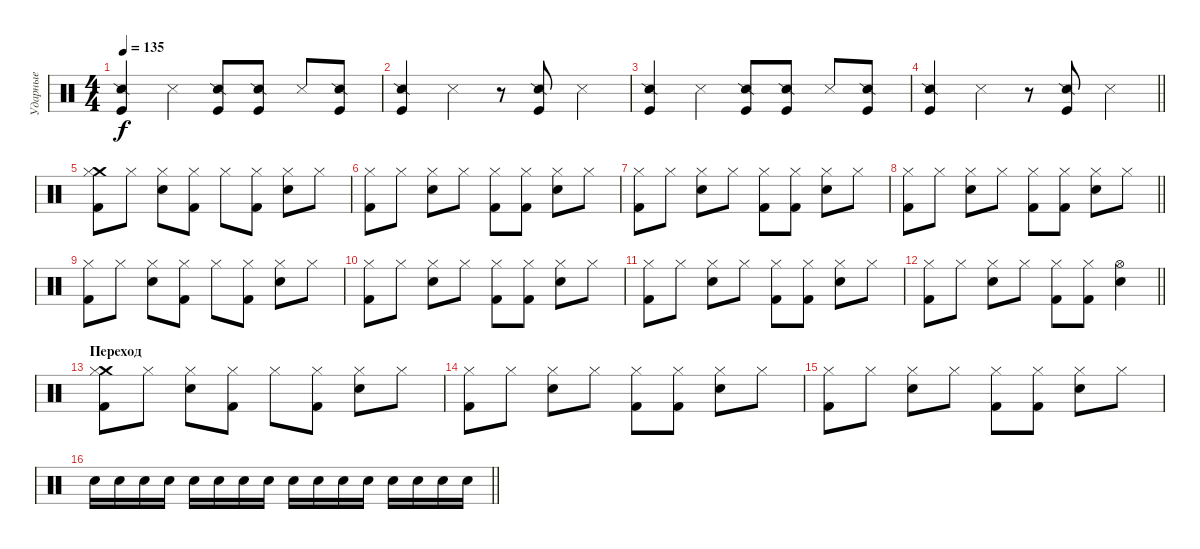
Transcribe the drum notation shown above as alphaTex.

\track ("Ударные" "Ударные") {instrument percussion}
\staff {score}
\articulation defaults
\ts (4 4)
\tempo 135
\clef neutral
\ks c
("Snare (side stick) 2" "Kick (hit)").4{dy f} "Snare (side stick) 3".4 ("Snare (side stick) 2" "Kick (hit)").8 ("Snare (side stick) 2" "Kick (hit)").8 "Snare (side stick) 3".8 ("Snare (side stick) 2" "Kick (hit)").8 |
("Snare (side stick) 2" "Kick (hit)").4 "Snare (side stick) 3".4 r.8 ("Snare (side stick) 2" "Kick (hit)").8 "Snare (side stick) 3".4 |
("Snare (side stick) 2" "Kick (hit)").4 "Snare (side stick) 3".4 ("Snare (side stick) 2" "Kick (hit)").8 ("Snare (side stick) 2" "Kick (hit)").8 "Snare (side stick) 3".8 ("Snare (side stick) 2" "Kick (hit)").8 |
\barLineRight lightlight
("Snare (side stick) 2" "Kick (hit)").4 "Snare (side stick) 3".4 r.8 ("Snare (side stick) 2" "Kick (hit)").8 "Snare (side stick) 3".4 |
("Crash medium (hit)" "Hi-Hat (closed)" "Kick (hit) 2").8 "Hi-Hat (closed)".8 ("Hi-Hat (closed)" "Electric Snare (hit)").8 ("Hi-Hat (closed)" "Kick (hit) 2").8 "Hi-Hat (closed)".8 ("Hi-Hat (closed)" "Kick (hit) 2").8 ("Hi-Hat (closed)" "Electric Snare (hit)").8 "Hi-Hat (closed)".8 |
("Hi-Hat (closed)" "Kick (hit) 2").8 "Hi-Hat (closed)".8 ("Hi-Hat (closed)" "Electric Snare (hit)").8 "Hi-Hat (closed)".8 ("Hi-Hat (closed)" "Kick (hit) 2").8 ("Hi-Hat (closed)" "Kick (hit) 2").8 ("Hi-Hat (closed)" "Electric Snare (hit)").8 "Hi-Hat (closed)".8 |
("Hi-Hat (closed)" "Kick (hit) 2").8 "Hi-Hat (closed)".8 ("Hi-Hat (closed)" "Electric Snare (hit)").8 "Hi-Hat (closed)".8 ("Hi-Hat (closed)" "Kick (hit) 2").8 ("Hi-Hat (closed)" "Kick (hit) 2").8 ("Hi-Hat (closed)" "Electric Snare (hit)").8 "Hi-Hat (closed)".8 |
\barLineRight lightlight
("Hi-Hat (closed)" "Kick (hit) 2").8 "Hi-Hat (closed)".8 ("Hi-Hat (closed)" "Electric Snare (hit)").8 "Hi-Hat (closed)".8 ("Hi-Hat (closed)" "Kick (hit) 2").8 ("Hi-Hat (closed)" "Kick (hit) 2").8 ("Hi-Hat (closed)" "Electric Snare (hit)").8 "Hi-Hat (closed)".8 |
("Hi-Hat (closed)" "Kick (hit) 2").8 "Hi-Hat (closed)".8 ("Hi-Hat (closed)" "Electric Snare (hit)").8 ("Hi-Hat (closed)" "Kick (hit) 2").8 "Hi-Hat (closed)".8 ("Hi-Hat (closed)" "Kick (hit) 2").8 ("Hi-Hat (closed)" "Electric Snare (hit)").8 "Hi-Hat (closed)".8 |
("Hi-Hat (closed)" "Kick (hit) 2").8 "Hi-Hat (closed)".8 ("Hi-Hat (closed)" "Electric Snare (hit)").8 "Hi-Hat (closed)".8 ("Hi-Hat (closed)" "Kick (hit) 2").8 ("Hi-Hat (closed)" "Kick (hit) 2").8 ("Hi-Hat (closed)" "Electric Snare (hit)").8 "Hi-Hat (closed)".8 |
("Hi-Hat (closed)" "Kick (hit) 2").8 "Hi-Hat (closed)".8 ("Hi-Hat (closed)" "Electric Snare (hit)").8 "Hi-Hat (closed)".8 ("Hi-Hat (closed)" "Kick (hit) 2").8 ("Hi-Hat (closed)" "Kick (hit) 2").8 ("Hi-Hat (closed)" "Electric Snare (hit)").8 "Hi-Hat (closed)".8 |
\barLineRight lightlight
("Hi-Hat (closed)" "Kick (hit) 2").8 "Hi-Hat (closed)".8 ("Hi-Hat (closed)" "Electric Snare (hit)").8 "Hi-Hat (closed)".8 ("Hi-Hat (closed)" "Kick (hit) 2").8 ("Hi-Hat (closed)" "Kick (hit) 2").8 ("Hi-Hat (open)" "Electric Snare (hit)").4 |
\section ("" "Переход")
("Crash medium (hit)" "Hi-Hat (closed)" "Kick (hit) 2").8 "Hi-Hat (closed)".8 ("Hi-Hat (closed)" "Electric Snare (hit)").8 ("Hi-Hat (closed)" "Kick (hit) 2").8 "Hi-Hat (closed)".8 ("Hi-Hat (closed)" "Kick (hit) 2").8 ("Hi-Hat (closed)" "Electric Snare (hit)").8 "Hi-Hat (closed)".8 |
("Hi-Hat (closed)" "Kick (hit) 2").8 "Hi-Hat (closed)".8 ("Hi-Hat (closed)" "Electric Snare (hit)").8 "Hi-Hat (closed)".8 ("Hi-Hat (closed)" "Kick (hit) 2").8 ("Hi-Hat (closed)" "Kick (hit) 2").8 ("Hi-Hat (closed)" "Electric Snare (hit)").8 "Hi-Hat (closed)".8 |
("Hi-Hat (closed)" "Kick (hit) 2").8 "Hi-Hat (closed)".8 ("Hi-Hat (closed)" "Electric Snare (hit)").8 "Hi-Hat (closed)".8 ("Hi-Hat (closed)" "Kick (hit) 2").8 ("Hi-Hat (closed)" "Kick (hit) 2").8 ("Hi-Hat (closed)" "Electric Snare (hit)").8 "Hi-Hat (closed)".8 |
\barLineRight lightlight "Electric Snare (hit)".16 "Electric Snare (hit)".16 "Electric Snare (hit)".16 "Electric Snare (hit)".16 "Electric Snare (hit)".16 "Electric Snare (hit)".16 "Electric Snare (hit)".16 "Electric Snare (hit)".16 "Electric Snare (hit)".16 "Electric Snare (hit)".16 "Electric Snare (hit)".16 "Electric Snare (hit)".16 "Electric Snare (hit)".16 "Electric Snare (hit)".16 "Electric Snare (hit)".16 "Electric Snare (hit)".16
